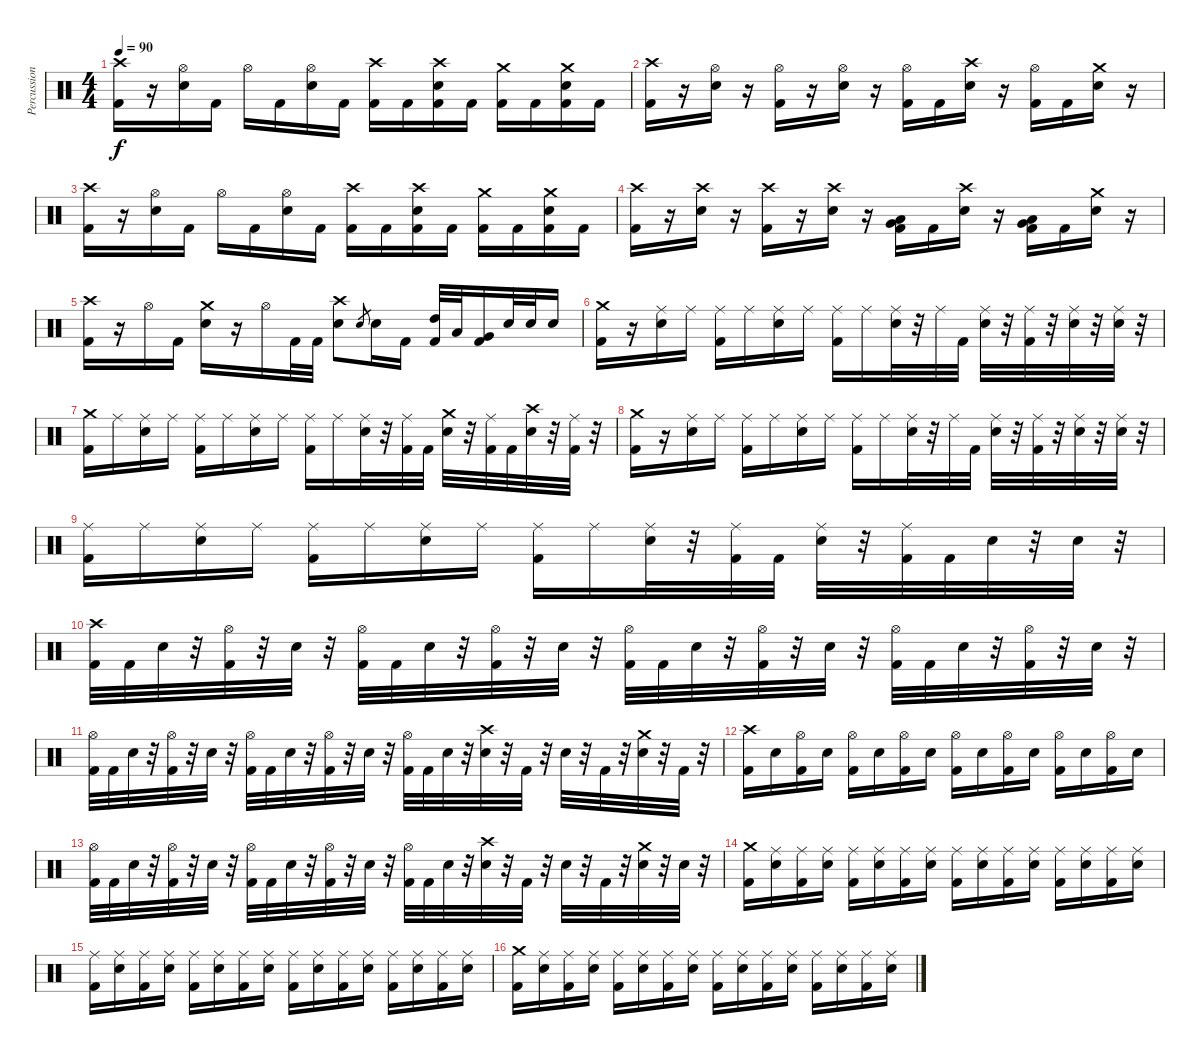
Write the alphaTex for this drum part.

\track ("Percussion" "Percussion") {instrument percussion}
\staff {score}
\articulation defaults
\ts (4 4)
\tempo 90
\clef neutral
\ks c
("Crash high (hit)" "Kick (hit) 2").16{dy f} r.16 ("Hi-Hat (open)" "Snare (hit) 2").16 "Kick (hit) 2".16 "Hi-Hat (open)".16 "Kick (hit) 2".16 ("Hi-Hat (open)" "Snare (hit) 2").16 "Kick (hit) 2".16 ("Crash high (hit)" "Kick (hit) 2").16 "Kick (hit) 2".16 ("Crash high (hit)" "Snare (hit) 2" "Kick (hit) 2").16 "Kick (hit) 2".16 ("Crash medium (hit)" "Kick (hit) 2").16 "Kick (hit) 2".16 ("Crash medium (hit)" "Snare (hit) 2" "Kick (hit) 2").16 "Kick (hit) 2".16 |
("Crash high (hit)" "Kick (hit) 2").16 r.16 ("Hi-Hat (open)" "Snare (hit) 2").16 r.16 ("Hi-Hat (open)" "Kick (hit) 2").16 r.16 ("Hi-Hat (open)" "Snare (hit) 2").16 r.16 ("Hi-Hat (open)" "Kick (hit) 2").16 "Kick (hit) 2".16 ("Crash high (hit)" "Snare (hit) 2").16 r.16 ("Hi-Hat (open)" "Kick (hit) 2").16 "Kick (hit) 2".16 ("Crash medium (hit)" "Snare (hit) 2").16 r.16 |
("Crash high (hit)" "Kick (hit) 2").16 r.16 ("Hi-Hat (open)" "Snare (hit) 2").16 "Kick (hit) 2".16 "Hi-Hat (open)".16 "Kick (hit) 2".16 ("Hi-Hat (open)" "Snare (hit) 2").16 "Kick (hit) 2".16 ("Crash high (hit)" "Kick (hit) 2").16 "Kick (hit) 2".16 ("Crash high (hit)" "Snare (hit) 2" "Kick (hit) 2").16 "Kick (hit) 2".16 ("Crash medium (hit)" "Kick (hit) 2").16 "Kick (hit) 2".16 ("Crash medium (hit)" "Snare (hit) 2" "Kick (hit) 2").16 "Kick (hit) 2".16 |
("Crash high (hit)" "Kick (hit) 2").16 r.16 ("Crash high (hit)" "Snare (hit) 2").16 r.16 ("Crash high (hit)" "Kick (hit) 2").16 r.16 ("Crash high (hit)" "Snare (hit) 2").16 r.16 ("Low Tom (hit)" "Very Low Tom (hit)" "Kick (hit) 2").16 "Kick (hit) 2".16 ("Crash high (hit)" "Snare (hit) 2").16 r.16 ("Very Low Tom (hit)" "Low Floor Tom (hit)" "Kick (hit) 2").16 "Kick (hit) 2".16 ("Crash medium (hit)" "Snare (hit) 2").16 r.16 |
("Crash high (hit)" "Kick (hit) 2").16 r.16 "Hi-Hat (open)".16 "Kick (hit) 2".16 ("Crash medium (hit)" "Snare (hit) 2").16 r.16 "Hi-Hat (open)".16 "Kick (hit) 2".32 "Kick (hit) 2".32 ("Crash high (hit)" "Snare (hit) 2").8 "Snare (hit) 2".8{gr} "Snare (hit) 2".16 "Kick (hit) 2".16 ("High Tom (hit)" "Kick (hit) 2").32 "Low Tom (hit)".32 ("Very Low Tom (hit)" "Kick (hit) 2").16 "Snare (hit) 2".32 "Snare (hit) 2".32 "Snare (hit) 2".16 |
("Crash medium (hit)" "Kick (hit) 2").16 r.16 ("Ride (middle)" "Snare (hit) 2").16 "Ride (middle)".16 ("Ride (middle)" "Kick (hit) 2").16 "Ride (middle)".16 ("Ride (middle)" "Snare (hit) 2").16 "Ride (middle)".16 ("Ride (middle)" "Kick (hit) 2").16 "Ride (middle)".16 ("Ride (middle)" "Snare (hit) 2").32 r.32 "Ride (middle)".32 "Kick (hit) 2".32 ("Ride (middle)" "Snare (hit) 2").32 r.32 ("Ride (middle)" "Kick (hit) 2").32 r.32 ("Ride (middle)" "Snare (hit) 2").32 r.32 ("Ride (middle)" "Snare (hit) 2").32 r.32 |
("Crash medium (hit)" "Kick (hit) 2").16 "Ride (middle)".16 ("Ride (middle)" "Snare (hit) 2").16 "Ride (middle)".16 ("Ride (middle)" "Kick (hit) 2").16 "Ride (middle)".16 ("Ride (middle)" "Snare (hit) 2").16 "Ride (middle)".16 ("Ride (middle)" "Kick (hit) 2").16 "Ride (middle)".16 ("Ride (middle)" "Snare (hit) 2").32 r.32 ("Ride (middle)" "Kick (hit) 2").32 "Kick (hit) 2".32 ("Crash medium (hit)" "Snare (hit) 2").32 r.32 ("Ride (middle)" "Kick (hit) 2").32 "Kick (hit) 2".32 ("Crash high (hit)" "Snare (hit) 2").32 r.32 ("Ride (middle)" "Kick (hit) 2").32 r.32 |
("Crash medium (hit)" "Kick (hit) 2").16 r.16 ("Ride (middle)" "Snare (hit) 2").16 "Ride (middle)".16 ("Ride (middle)" "Kick (hit) 2").16 "Ride (middle)".16 ("Ride (middle)" "Snare (hit) 2").16 "Ride (middle)".16 ("Ride (middle)" "Kick (hit) 2").16 "Ride (middle)".16 ("Ride (middle)" "Snare (hit) 2").32 r.32 "Ride (middle)".32 "Kick (hit) 2".32 ("Ride (middle)" "Snare (hit) 2").32 r.32 ("Ride (middle)" "Kick (hit) 2").32 r.32 ("Ride (middle)" "Snare (hit) 2").32 r.32 ("Ride (middle)" "Snare (hit) 2").32 r.32 |
("Ride (middle)" "Kick (hit) 2").16 "Ride (middle)".16 ("Ride (middle)" "Snare (hit) 2").16 "Ride (middle)".16 ("Ride (middle)" "Kick (hit) 2").16 "Ride (middle)".16 ("Ride (middle)" "Snare (hit) 2").16 "Ride (middle)".16 ("Ride (middle)" "Kick (hit) 2").16 "Ride (middle)".16 ("Ride (middle)" "Snare (hit) 2").32 r.32 ("Ride (middle)" "Kick (hit) 2").32 "Kick (hit) 2".32 ("Ride (middle)" "Snare (hit) 2").32 r.32 ("Ride (middle)" "Kick (hit) 2").32 "Kick (hit) 2".32 "Snare (hit) 2".32 r.32 "Snare (hit) 2".32 r.32 |
("Crash high (hit)" "Kick (hit) 2").32 "Kick (hit) 2".32 "Snare (hit) 2".32 r.32 ("Hi-Hat (open)" "Kick (hit) 2").32 r.32 "Snare (hit) 2".32 r.32 ("Hi-Hat (open)" "Kick (hit) 2").32 "Kick (hit) 2".32 "Snare (hit) 2".32 r.32 ("Hi-Hat (open)" "Kick (hit) 2").32 r.32 "Snare (hit) 2".32 r.32 ("Hi-Hat (open)" "Kick (hit) 2").32 "Kick (hit) 2".32 "Snare (hit) 2".32 r.32 ("Hi-Hat (open)" "Kick (hit) 2").32 r.32 "Snare (hit) 2".32 r.32 ("Hi-Hat (open)" "Kick (hit) 2").32 "Kick (hit) 2".32 "Snare (hit) 2".32 r.32 ("Hi-Hat (open)" "Kick (hit) 2").32 r.32 "Snare (hit) 2".32 r.32 |
("Hi-Hat (open)" "Kick (hit) 2").32 "Kick (hit) 2".32 "Snare (hit) 2".32 r.32 ("Hi-Hat (open)" "Kick (hit) 2").32 r.32 "Snare (hit) 2".32 r.32 ("Hi-Hat (open)" "Kick (hit) 2").32 "Kick (hit) 2".32 "Snare (hit) 2".32 r.32 ("Hi-Hat (open)" "Kick (hit) 2").32 r.32 "Snare (hit) 2".32 r.32 ("Hi-Hat (open)" "Kick (hit) 2").32 "Kick (hit) 2".32 "Snare (hit) 2".32 r.32 ("Crash high (hit)" "Snare (hit) 2").32 r.32 "Kick (hit) 2".32 r.32 "Snare (hit) 2".32 r.32 "Kick (hit) 2".32 r.32 ("Crash medium (hit)" "Snare (hit) 2").32 r.32 "Kick (hit) 2".32 r.32 |
("Crash high (hit)" "Kick (hit) 2").16 "Snare (hit) 2".16 ("Hi-Hat (open)" "Kick (hit) 2").16 "Snare (hit) 2".16 ("Hi-Hat (open)" "Kick (hit) 2").16 "Snare (hit) 2".16 ("Hi-Hat (open)" "Kick (hit) 2").16 "Snare (hit) 2".16 ("Hi-Hat (open)" "Kick (hit) 2").16 "Snare (hit) 2".16 ("Hi-Hat (open)" "Kick (hit) 2").16 "Snare (hit) 2".16 ("Hi-Hat (open)" "Kick (hit) 2").16 "Snare (hit) 2".16 ("Hi-Hat (open)" "Kick (hit) 2").16 "Snare (hit) 2".16 |
("Hi-Hat (open)" "Kick (hit) 2").32 "Kick (hit) 2".32 "Snare (hit) 2".32 r.32 ("Hi-Hat (open)" "Kick (hit) 2").32 r.32 "Snare (hit) 2".32 r.32 ("Hi-Hat (open)" "Kick (hit) 2").32 "Kick (hit) 2".32 "Snare (hit) 2".32 r.32 ("Hi-Hat (open)" "Kick (hit) 2").32 r.32 "Snare (hit) 2".32 r.32 ("Hi-Hat (open)" "Kick (hit) 2").32 "Kick (hit) 2".32 "Snare (hit) 2".32 r.32 ("Crash high (hit)" "Snare (hit) 2").32 r.32 "Kick (hit) 2".32 r.32 "Snare (hit) 2".32 r.32 "Kick (hit) 2".32 r.32 ("Crash medium (hit)" "Snare (hit) 2").32 r.32 "Snare (hit) 2".32 r.32 |
("Crash medium (hit)" "Kick (hit) 2").16 ("Ride (middle)" "Snare (hit) 2").16 ("Ride (middle)" "Kick (hit) 2").16 ("Ride (middle)" "Snare (hit) 2").16 ("Ride (middle)" "Kick (hit) 2").16 ("Ride (middle)" "Snare (hit) 2").16 ("Ride (middle)" "Kick (hit) 2").16 ("Ride (middle)" "Snare (hit) 2").16 ("Ride (middle)" "Kick (hit) 2").16 ("Ride (middle)" "Snare (hit) 2").16 ("Ride (middle)" "Kick (hit) 2").16 ("Ride (middle)" "Snare (hit) 2").16 ("Ride (middle)" "Kick (hit) 2").16 ("Ride (middle)" "Snare (hit) 2").16 ("Ride (middle)" "Kick (hit) 2").16 ("Ride (middle)" "Snare (hit) 2").16 |
("Ride (middle)" "Kick (hit) 2").16 ("Ride (middle)" "Snare (hit) 2").16 ("Ride (middle)" "Kick (hit) 2").16 ("Ride (middle)" "Snare (hit) 2").16 ("Ride (middle)" "Kick (hit) 2").16 ("Ride (middle)" "Snare (hit) 2").16 ("Ride (middle)" "Kick (hit) 2").16 ("Ride (middle)" "Snare (hit) 2").16 ("Ride (middle)" "Kick (hit) 2").16 ("Ride (middle)" "Snare (hit) 2").16 ("Ride (middle)" "Kick (hit) 2").16 ("Ride (middle)" "Snare (hit) 2").16 ("Ride (middle)" "Kick (hit) 2").16 ("Ride (middle)" "Snare (hit) 2").16 ("Ride (middle)" "Kick (hit) 2").16 ("Ride (middle)" "Snare (hit) 2").16 |
("Crash medium (hit)" "Kick (hit) 2").16 ("Ride (middle)" "Snare (hit) 2").16 ("Ride (middle)" "Kick (hit) 2").16 ("Ride (middle)" "Snare (hit) 2").16 ("Ride (middle)" "Kick (hit) 2").16 ("Ride (middle)" "Snare (hit) 2").16 ("Ride (middle)" "Kick (hit) 2").16 ("Ride (middle)" "Snare (hit) 2").16 ("Ride (middle)" "Kick (hit) 2").16 ("Ride (middle)" "Snare (hit) 2").16 ("Ride (middle)" "Kick (hit) 2").16 ("Ride (middle)" "Snare (hit) 2").16 ("Ride (middle)" "Kick (hit) 2").16 ("Ride (middle)" "Snare (hit) 2").16 ("Ride (middle)" "Kick (hit) 2").16 ("Ride (middle)" "Snare (hit) 2").16
